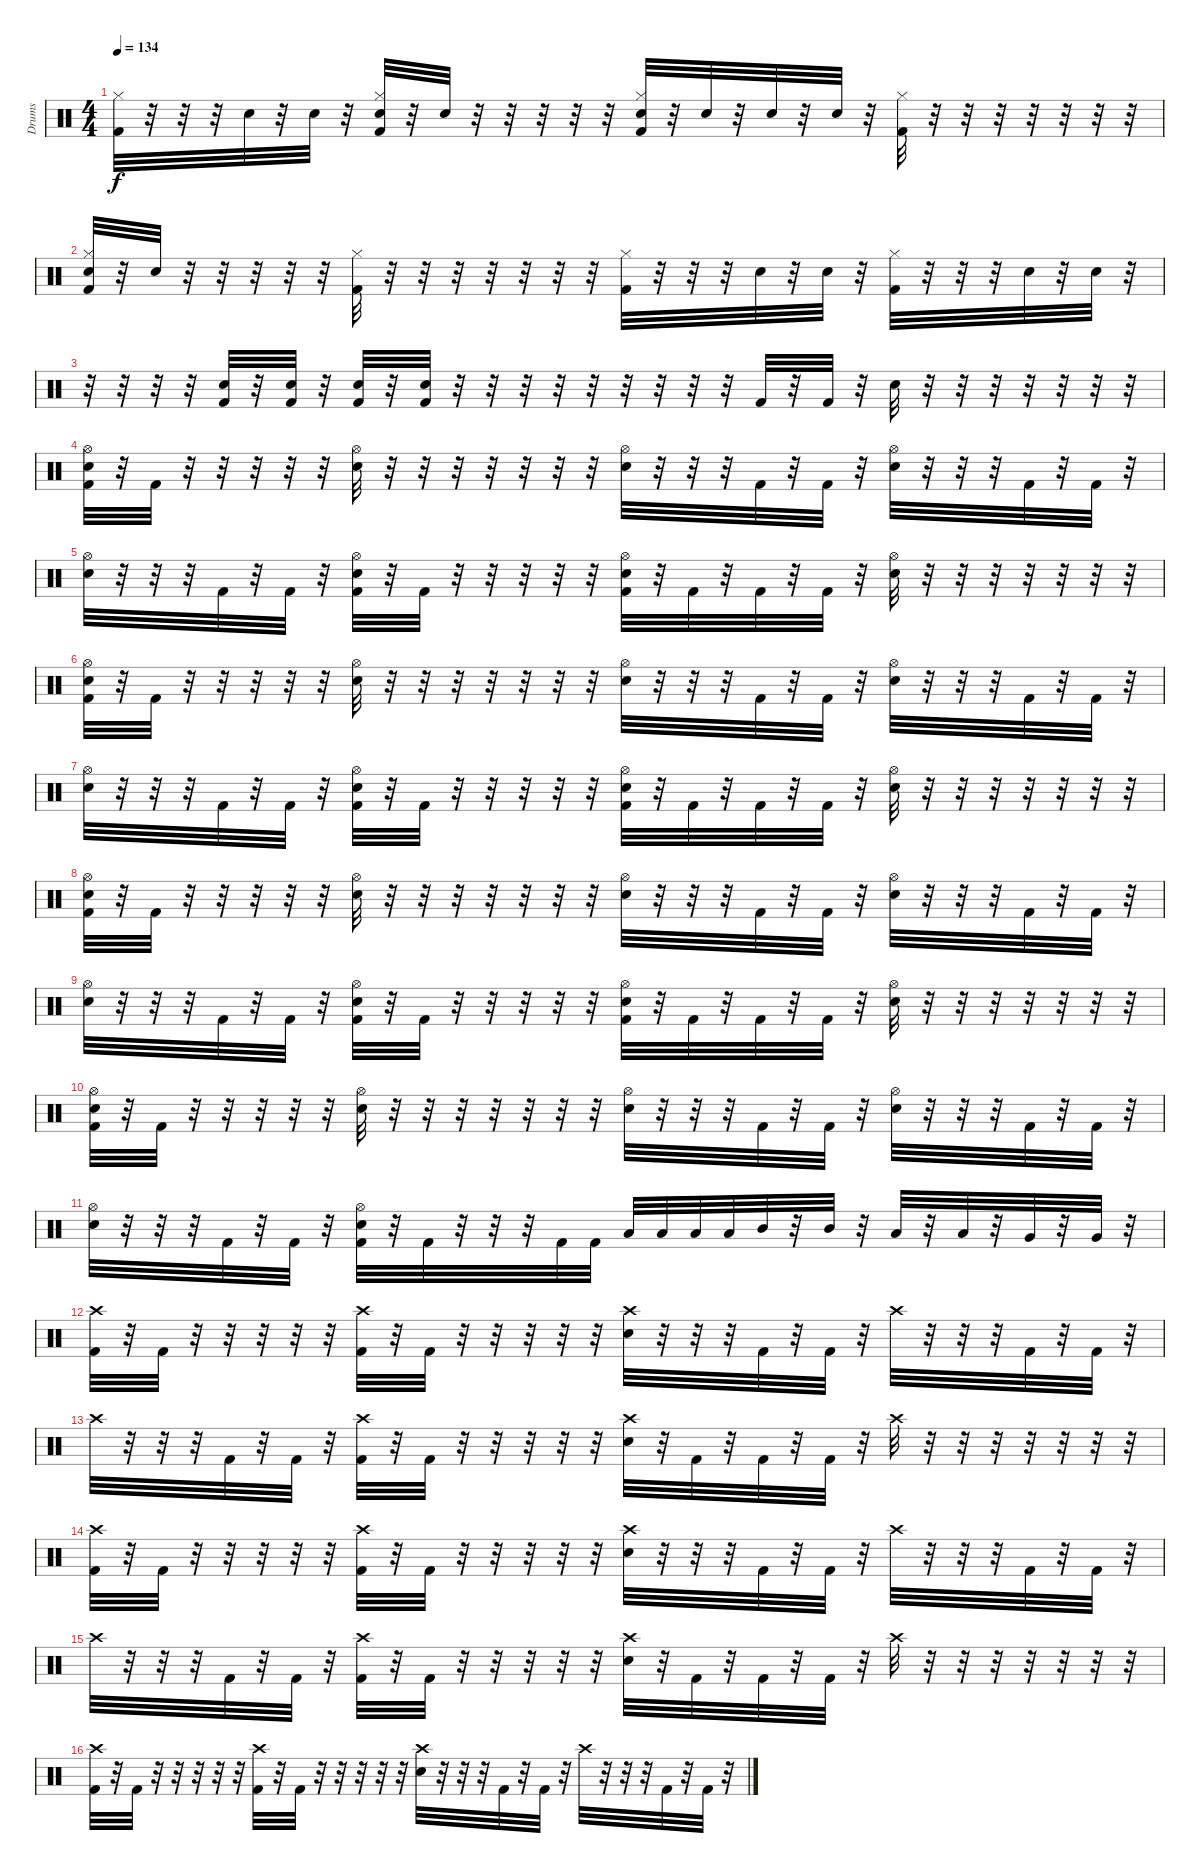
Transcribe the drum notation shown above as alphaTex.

\track ("Drums" "Drums") {instrument percussion}
\staff {score}
\articulation defaults
\ts (4 4)
\tempo 134
\clef neutral
\ks c
("Kick (hit) 2" "Hi-Hat (closed)").32{dy f} r.32 r.32 r.32 "Electric Snare (hit)".32 r.32 "Electric Snare (hit)".32 r.32 ("Kick (hit) 2" "Electric Snare (hit)" "Hi-Hat (closed)").32 r.32 "Electric Snare (hit)".32 r.32 r.32 r.32 r.32 r.32 ("Kick (hit) 2" "Electric Snare (hit)" "Hi-Hat (closed)").32 r.32 "Electric Snare (hit)".32 r.32 "Electric Snare (hit)".32 r.32 "Electric Snare (hit)".32 r.32 ("Kick (hit) 2" "Hi-Hat (closed)").32 r.32 r.32 r.32 r.32 r.32 r.32 r.32 |
("Kick (hit) 2" "Electric Snare (hit)" "Hi-Hat (closed)").32 r.32 "Electric Snare (hit)".32 r.32 r.32 r.32 r.32 r.32 ("Kick (hit) 2" "Hi-Hat (closed)").32 r.32 r.32 r.32 r.32 r.32 r.32 r.32 ("Kick (hit) 2" "Hi-Hat (closed)").32 r.32 r.32 r.32 "Electric Snare (hit)".32 r.32 "Electric Snare (hit)".32 r.32 ("Kick (hit) 2" "Hi-Hat (closed)").32 r.32 r.32 r.32 "Electric Snare (hit)".32 r.32 "Electric Snare (hit)".32 r.32 |
r.32 r.32 r.32 r.32 ("Kick (hit) 2" "Electric Snare (hit)").32 r.32 ("Kick (hit) 2" "Electric Snare (hit)").32 r.32 ("Kick (hit) 2" "Electric Snare (hit)").32 r.32 ("Kick (hit) 2" "Electric Snare (hit)").32 r.32 r.32 r.32 r.32 r.32 r.32 r.32 r.32 r.32 "Kick (hit) 2".32 r.32 "Kick (hit) 2".32 r.32 "Electric Snare (hit)".32 r.32 r.32 r.32 r.32 r.32 r.32 r.32 |
("Kick (hit) 2" "Snare (hit) 2" "Hi-Hat (open)").32 r.32 "Kick (hit) 2".32 r.32 r.32 r.32 r.32 r.32 ("Snare (hit) 2" "Hi-Hat (open)").32 r.32 r.32 r.32 r.32 r.32 r.32 r.32 ("Snare (hit) 2" "Hi-Hat (open)").32 r.32 r.32 r.32 "Kick (hit) 2".32 r.32 "Kick (hit) 2".32 r.32 ("Snare (hit) 2" "Hi-Hat (open)").32 r.32 r.32 r.32 "Kick (hit) 2".32 r.32 "Kick (hit) 2".32 r.32 |
("Snare (hit) 2" "Hi-Hat (open)").32 r.32 r.32 r.32 "Kick (hit) 2".32 r.32 "Kick (hit) 2".32 r.32 ("Kick (hit) 2" "Snare (hit) 2" "Hi-Hat (open)").32 r.32 "Kick (hit) 2".32 r.32 r.32 r.32 r.32 r.32 ("Kick (hit) 2" "Snare (hit) 2" "Hi-Hat (open)").32 r.32 "Kick (hit) 2".32 r.32 "Kick (hit) 2".32 r.32 "Kick (hit) 2".32 r.32 ("Snare (hit) 2" "Hi-Hat (open)").32 r.32 r.32 r.32 r.32 r.32 r.32 r.32 |
("Kick (hit) 2" "Snare (hit) 2" "Hi-Hat (open)").32 r.32 "Kick (hit) 2".32 r.32 r.32 r.32 r.32 r.32 ("Snare (hit) 2" "Hi-Hat (open)").32 r.32 r.32 r.32 r.32 r.32 r.32 r.32 ("Snare (hit) 2" "Hi-Hat (open)").32 r.32 r.32 r.32 "Kick (hit) 2".32 r.32 "Kick (hit) 2".32 r.32 ("Snare (hit) 2" "Hi-Hat (open)").32 r.32 r.32 r.32 "Kick (hit) 2".32 r.32 "Kick (hit) 2".32 r.32 |
("Snare (hit) 2" "Hi-Hat (open)").32 r.32 r.32 r.32 "Kick (hit) 2".32 r.32 "Kick (hit) 2".32 r.32 ("Kick (hit) 2" "Snare (hit) 2" "Hi-Hat (open)").32 r.32 "Kick (hit) 2".32 r.32 r.32 r.32 r.32 r.32 ("Kick (hit) 2" "Snare (hit) 2" "Hi-Hat (open)").32 r.32 "Kick (hit) 2".32 r.32 "Kick (hit) 2".32 r.32 "Kick (hit) 2".32 r.32 ("Snare (hit) 2" "Hi-Hat (open)").32 r.32 r.32 r.32 r.32 r.32 r.32 r.32 |
("Kick (hit) 2" "Snare (hit) 2" "Hi-Hat (open)").32 r.32 "Kick (hit) 2".32 r.32 r.32 r.32 r.32 r.32 ("Snare (hit) 2" "Hi-Hat (open)").32 r.32 r.32 r.32 r.32 r.32 r.32 r.32 ("Snare (hit) 2" "Hi-Hat (open)").32 r.32 r.32 r.32 "Kick (hit) 2".32 r.32 "Kick (hit) 2".32 r.32 ("Snare (hit) 2" "Hi-Hat (open)").32 r.32 r.32 r.32 "Kick (hit) 2".32 r.32 "Kick (hit) 2".32 r.32 |
("Snare (hit) 2" "Hi-Hat (open)").32 r.32 r.32 r.32 "Kick (hit) 2".32 r.32 "Kick (hit) 2".32 r.32 ("Kick (hit) 2" "Snare (hit) 2" "Hi-Hat (open)").32 r.32 "Kick (hit) 2".32 r.32 r.32 r.32 r.32 r.32 ("Kick (hit) 2" "Snare (hit) 2" "Hi-Hat (open)").32 r.32 "Kick (hit) 2".32 r.32 "Kick (hit) 2".32 r.32 "Kick (hit) 2".32 r.32 ("Snare (hit) 2" "Hi-Hat (open)").32 r.32 r.32 r.32 r.32 r.32 r.32 r.32 |
("Kick (hit) 2" "Snare (hit) 2" "Hi-Hat (open)").32 r.32 "Kick (hit) 2".32 r.32 r.32 r.32 r.32 r.32 ("Snare (hit) 2" "Hi-Hat (open)").32 r.32 r.32 r.32 r.32 r.32 r.32 r.32 ("Snare (hit) 2" "Hi-Hat (open)").32 r.32 r.32 r.32 "Kick (hit) 2".32 r.32 "Kick (hit) 2".32 r.32 ("Snare (hit) 2" "Hi-Hat (open)").32 r.32 r.32 r.32 "Kick (hit) 2".32 r.32 "Kick (hit) 2".32 r.32 |
("Snare (hit) 2" "Hi-Hat (open)").32 r.32 r.32 r.32 "Kick (hit) 2".32 r.32 "Kick (hit) 2".32 r.32 ("Kick (hit) 2" "Snare (hit) 2" "Hi-Hat (open)").32 r.32 "Kick (hit) 2".32 r.32 r.32 r.32 "Kick (hit) 2".32 "Kick (hit) 2".32 "Low Tom (hit)".32 "Low Tom (hit)".32 "Low Tom (hit)".32 "Low Tom (hit)".32 "Mid Tom (hit)".32 r.32 "Mid Tom (hit)".32 r.32 "Low Tom (hit)".32 r.32 "Low Tom (hit)".32 r.32 "Very Low Tom (hit)".32 r.32 "Very Low Tom (hit)".32 r.32 |
("Kick (hit) 2" "Crash high (hit)").32 r.32 "Kick (hit) 2".32 r.32 r.32 r.32 r.32 r.32 ("Kick (hit) 2" "Crash high (hit)").32 r.32 "Kick (hit) 2".32 r.32 r.32 r.32 r.32 r.32 ("Electric Snare (hit)" "Crash high (hit)").32 r.32 r.32 r.32 "Kick (hit) 2".32 r.32 "Kick (hit) 2".32 r.32 "Crash high (hit)".32 r.32 r.32 r.32 "Kick (hit) 2".32 r.32 "Kick (hit) 2".32 r.32 |
"Crash high (hit)".32 r.32 r.32 r.32 "Kick (hit) 2".32 r.32 "Kick (hit) 2".32 r.32 ("Kick (hit) 2" "Crash high (hit)").32 r.32 "Kick (hit) 2".32 r.32 r.32 r.32 r.32 r.32 ("Electric Snare (hit)" "Crash high (hit)").32 r.32 "Kick (hit) 2".32 r.32 "Kick (hit) 2".32 r.32 "Kick (hit) 2".32 r.32 "Crash high (hit)".32 r.32 r.32 r.32 r.32 r.32 r.32 r.32 |
("Kick (hit) 2" "Crash high (hit)").32 r.32 "Kick (hit) 2".32 r.32 r.32 r.32 r.32 r.32 ("Kick (hit) 2" "Crash high (hit)").32 r.32 "Kick (hit) 2".32 r.32 r.32 r.32 r.32 r.32 ("Electric Snare (hit)" "Crash high (hit)").32 r.32 r.32 r.32 "Kick (hit) 2".32 r.32 "Kick (hit) 2".32 r.32 "Crash high (hit)".32 r.32 r.32 r.32 "Kick (hit) 2".32 r.32 "Kick (hit) 2".32 r.32 |
"Crash high (hit)".32 r.32 r.32 r.32 "Kick (hit) 2".32 r.32 "Kick (hit) 2".32 r.32 ("Kick (hit) 2" "Crash high (hit)").32 r.32 "Kick (hit) 2".32 r.32 r.32 r.32 r.32 r.32 ("Electric Snare (hit)" "Crash high (hit)").32 r.32 "Kick (hit) 2".32 r.32 "Kick (hit) 2".32 r.32 "Kick (hit) 2".32 r.32 "Crash high (hit)".32 r.32 r.32 r.32 r.32 r.32 r.32 r.32 |
("Kick (hit) 2" "Crash high (hit)").32 r.32 "Kick (hit) 2".32 r.32 r.32 r.32 r.32 r.32 ("Kick (hit) 2" "Crash high (hit)").32 r.32 "Kick (hit) 2".32 r.32 r.32 r.32 r.32 r.32 ("Electric Snare (hit)" "Crash high (hit)").32 r.32 r.32 r.32 "Kick (hit) 2".32 r.32 "Kick (hit) 2".32 r.32 "Crash high (hit)".32 r.32 r.32 r.32 "Kick (hit) 2".32 r.32 "Kick (hit) 2".32 r.32
